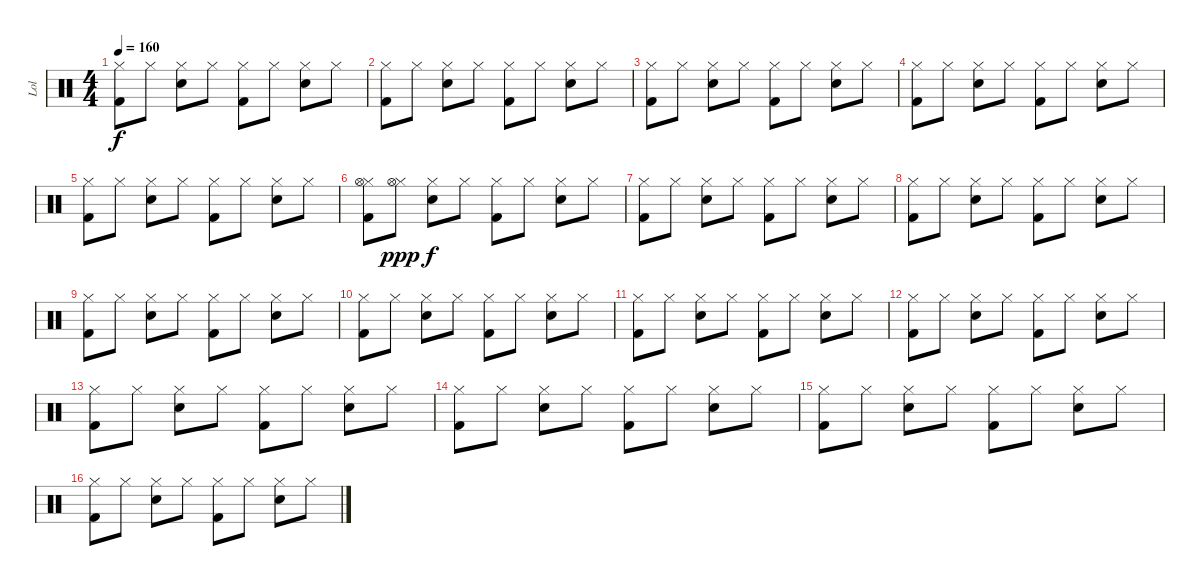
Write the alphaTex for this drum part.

\track ("Lol" "Lol") {instrument percussion}
\staff {score}
\articulation defaults
\ts (4 4)
\tempo 160
\clef neutral
\ks c
("Kick (hit) 2" "Hi-Hat (closed)").8{dy f} "Hi-Hat (closed)".8 ("Snare (hit) 2" "Hi-Hat (closed)").8 "Hi-Hat (closed)".8 ("Kick (hit) 2" "Hi-Hat (closed)").8 "Hi-Hat (closed)".8 ("Snare (hit) 2" "Hi-Hat (closed)").8 "Hi-Hat (closed)".8 |
("Kick (hit) 2" "Hi-Hat (closed)").8 "Hi-Hat (closed)".8 ("Snare (hit) 2" "Hi-Hat (closed)").8 "Hi-Hat (closed)".8 ("Kick (hit) 2" "Hi-Hat (closed)").8 "Hi-Hat (closed)".8 ("Snare (hit) 2" "Hi-Hat (closed)").8 "Hi-Hat (closed)".8 |
("Kick (hit) 2" "Hi-Hat (closed)").8 "Hi-Hat (closed)".8 ("Snare (hit) 2" "Hi-Hat (closed)").8 "Hi-Hat (closed)".8 ("Kick (hit) 2" "Hi-Hat (closed)").8 "Hi-Hat (closed)".8 ("Snare (hit) 2" "Hi-Hat (closed)").8 "Hi-Hat (closed)".8 |
("Kick (hit) 2" "Hi-Hat (closed)").8 "Hi-Hat (closed)".8 ("Snare (hit) 2" "Hi-Hat (closed)").8 "Hi-Hat (closed)".8 ("Kick (hit) 2" "Hi-Hat (closed)").8 "Hi-Hat (closed)".8 ("Snare (hit) 2" "Hi-Hat (closed)").8 "Hi-Hat (closed)".8 |
("Kick (hit) 2" "Hi-Hat (closed)").8 "Hi-Hat (closed)".8 ("Snare (hit) 2" "Hi-Hat (closed)").8 "Hi-Hat (closed)".8 ("Kick (hit) 2" "Hi-Hat (closed)").8 "Hi-Hat (closed)".8 ("Snare (hit) 2" "Hi-Hat (closed)").8 "Hi-Hat (closed)".8 |
("Kick (hit) 2" "Hi-Hat (closed)" "Hi-Hat (open)").8 ("Hi-Hat (closed)" "Hi-Hat (open)").8{dy ppp} ("Snare (hit) 2" "Hi-Hat (closed)").8{dy f} "Hi-Hat (closed)".8 ("Kick (hit) 2" "Hi-Hat (closed)").8 "Hi-Hat (closed)".8 ("Snare (hit) 2" "Hi-Hat (closed)").8 "Hi-Hat (closed)".8 |
("Kick (hit) 2" "Hi-Hat (closed)").8 "Hi-Hat (closed)".8 ("Snare (hit) 2" "Hi-Hat (closed)").8 "Hi-Hat (closed)".8 ("Kick (hit) 2" "Hi-Hat (closed)").8 "Hi-Hat (closed)".8 ("Snare (hit) 2" "Hi-Hat (closed)").8 "Hi-Hat (closed)".8 |
("Kick (hit) 2" "Hi-Hat (closed)").8 "Hi-Hat (closed)".8 ("Snare (hit) 2" "Hi-Hat (closed)").8 "Hi-Hat (closed)".8 ("Kick (hit) 2" "Hi-Hat (closed)").8 "Hi-Hat (closed)".8 ("Snare (hit) 2" "Hi-Hat (closed)").8 "Hi-Hat (closed)".8 |
("Kick (hit) 2" "Hi-Hat (closed)").8 "Hi-Hat (closed)".8 ("Snare (hit) 2" "Hi-Hat (closed)").8 "Hi-Hat (closed)".8 ("Kick (hit) 2" "Hi-Hat (closed)").8 "Hi-Hat (closed)".8 ("Snare (hit) 2" "Hi-Hat (closed)").8 "Hi-Hat (closed)".8 |
("Kick (hit) 2" "Hi-Hat (closed)").8 "Hi-Hat (closed)".8 ("Snare (hit) 2" "Hi-Hat (closed)").8 "Hi-Hat (closed)".8 ("Kick (hit) 2" "Hi-Hat (closed)").8 "Hi-Hat (closed)".8 ("Snare (hit) 2" "Hi-Hat (closed)").8 "Hi-Hat (closed)".8 |
("Kick (hit) 2" "Hi-Hat (closed)").8 "Hi-Hat (closed)".8 ("Snare (hit) 2" "Hi-Hat (closed)").8 "Hi-Hat (closed)".8 ("Kick (hit) 2" "Hi-Hat (closed)").8 "Hi-Hat (closed)".8 ("Snare (hit) 2" "Hi-Hat (closed)").8 "Hi-Hat (closed)".8 |
("Kick (hit) 2" "Hi-Hat (closed)").8 "Hi-Hat (closed)".8 ("Snare (hit) 2" "Hi-Hat (closed)").8 "Hi-Hat (closed)".8 ("Kick (hit) 2" "Hi-Hat (closed)").8 "Hi-Hat (closed)".8 ("Snare (hit) 2" "Hi-Hat (closed)").8 "Hi-Hat (closed)".8 |
("Kick (hit) 2" "Hi-Hat (closed)").8 "Hi-Hat (closed)".8 ("Snare (hit) 2" "Hi-Hat (closed)").8 "Hi-Hat (closed)".8 ("Kick (hit) 2" "Hi-Hat (closed)").8 "Hi-Hat (closed)".8 ("Snare (hit) 2" "Hi-Hat (closed)").8 "Hi-Hat (closed)".8 |
("Kick (hit) 2" "Hi-Hat (closed)").8 "Hi-Hat (closed)".8 ("Snare (hit) 2" "Hi-Hat (closed)").8 "Hi-Hat (closed)".8 ("Kick (hit) 2" "Hi-Hat (closed)").8 "Hi-Hat (closed)".8 ("Snare (hit) 2" "Hi-Hat (closed)").8 "Hi-Hat (closed)".8 |
("Kick (hit) 2" "Hi-Hat (closed)").8 "Hi-Hat (closed)".8 ("Snare (hit) 2" "Hi-Hat (closed)").8 "Hi-Hat (closed)".8 ("Kick (hit) 2" "Hi-Hat (closed)").8 "Hi-Hat (closed)".8 ("Snare (hit) 2" "Hi-Hat (closed)").8 "Hi-Hat (closed)".8 |
("Kick (hit) 2" "Hi-Hat (closed)").8 "Hi-Hat (closed)".8 ("Snare (hit) 2" "Hi-Hat (closed)").8 "Hi-Hat (closed)".8 ("Kick (hit) 2" "Hi-Hat (closed)").8 "Hi-Hat (closed)".8 ("Snare (hit) 2" "Hi-Hat (closed)").8 "Hi-Hat (closed)".8
